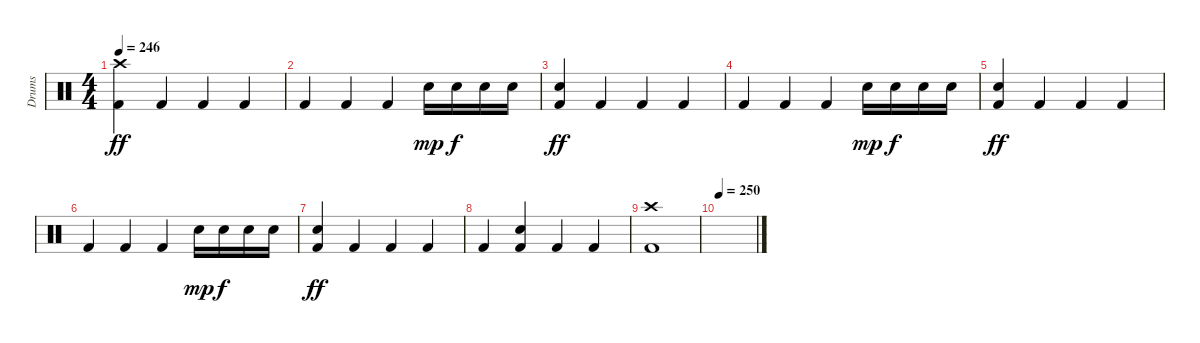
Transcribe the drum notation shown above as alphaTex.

\track ("Drums" "Drums") {instrument percussion}
\staff {score}
\articulation defaults
\ts (4 4)
\tempo 246
\clef neutral
\ks c
("Crash high (hit)" "Kick (hit) 2").4{dy ff} "Kick (hit) 2".4 "Kick (hit) 2".4 "Kick (hit) 2".4 |
"Kick (hit) 2".4 "Kick (hit) 2".4 "Kick (hit) 2".4 "Electric Snare (hit)".16{dy mp} "Electric Snare (hit)".16{dy f} "Electric Snare (hit)".16 "Electric Snare (hit)".16 |
("Electric Snare (hit)" "Kick (hit) 2").4{dy ff} "Kick (hit) 2".4 "Kick (hit) 2".4 "Kick (hit) 2".4 |
"Kick (hit) 2".4 "Kick (hit) 2".4 "Kick (hit) 2".4 "Electric Snare (hit)".16{dy mp} "Electric Snare (hit)".16{dy f} "Electric Snare (hit)".16 "Electric Snare (hit)".16 |
("Electric Snare (hit)" "Kick (hit) 2").4{dy ff} "Kick (hit) 2".4 "Kick (hit) 2".4 "Kick (hit) 2".4 |
"Kick (hit) 2".4 "Kick (hit) 2".4 "Kick (hit) 2".4 "Electric Snare (hit)".16{dy mp} "Electric Snare (hit)".16{dy f} "Electric Snare (hit)".16 "Electric Snare (hit)".16 |
("Electric Snare (hit)" "Kick (hit) 2").4{dy ff} "Kick (hit) 2".4 "Kick (hit) 2".4 "Kick (hit) 2".4 |
"Kick (hit) 2".4 ("Electric Snare (hit)" "Kick (hit) 2").4 "Kick (hit) 2".4 "Kick (hit) 2".4 |
("Crash high (hit)" "Kick (hit) 2").1 |
\tempo 250
